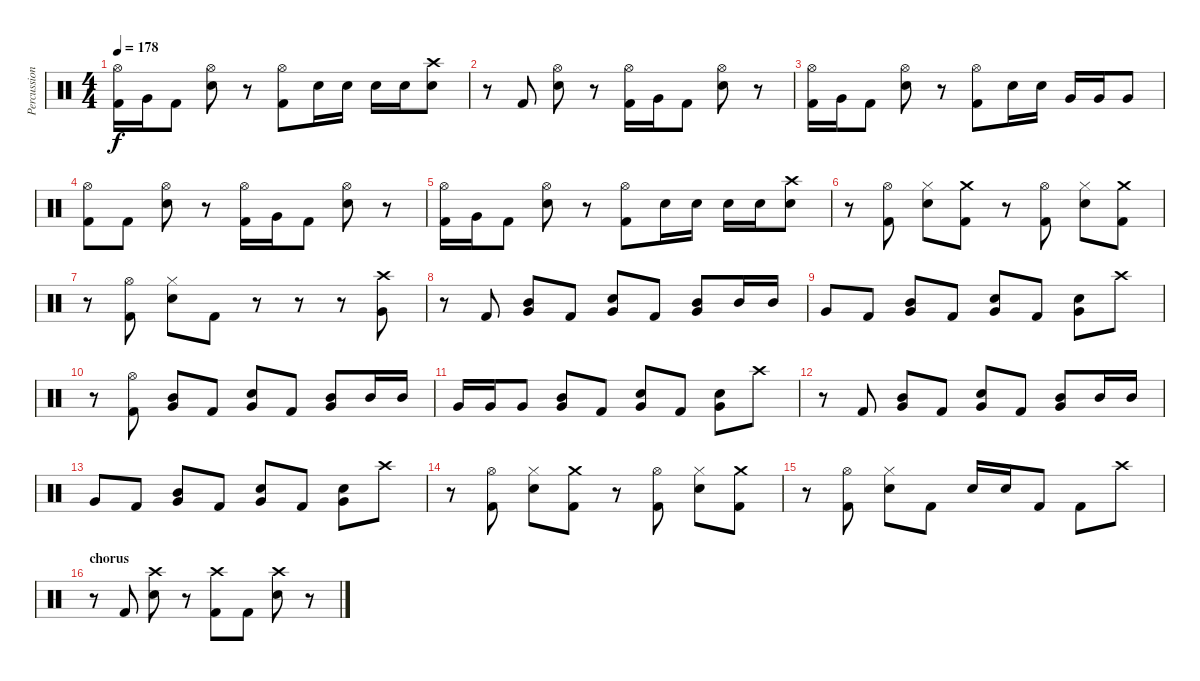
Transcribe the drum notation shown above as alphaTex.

\track ("Percussion" "Percussion") {instrument percussion}
\staff {score}
\articulation defaults
\ts (4 4)
\tempo 178
\clef neutral
\ks c
("Hi-Hat (open)" "Kick (hit) 2").16{dy f} "Very Low Tom (hit)".16 "Kick (hit) 2".8 ("Hi-Hat (open)" "Electric Snare (hit)").8 r.8 ("Hi-Hat (open)" "Kick (hit) 2").8 "Electric Snare (hit)".16 "Electric Snare (hit)".16 "Electric Snare (hit)".16 "Electric Snare (hit)".16 ("Crash high (hit)" "Electric Snare (hit)").8 |
r.8 "Kick (hit) 2".8 ("Hi-Hat (open)" "Electric Snare (hit)").8 r.8 ("Hi-Hat (open)" "Kick (hit) 2").16 "Very Low Tom (hit)".16 "Kick (hit) 2".8 ("Hi-Hat (open)" "Electric Snare (hit)").8 r.8 |
("Hi-Hat (open)" "Kick (hit) 2").16 "Very Low Tom (hit)".16 "Kick (hit) 2".8 ("Hi-Hat (open)" "Electric Snare (hit)").8 r.8 ("Hi-Hat (open)" "Kick (hit) 2").8 "Electric Snare (hit)".16 "Electric Snare (hit)".16 "Very Low Tom (hit)".16 "Very Low Tom (hit)".16 "Very Low Tom (hit)".8 |
("Hi-Hat (open)" "Kick (hit) 2").8 "Kick (hit) 2".8 ("Hi-Hat (open)" "Electric Snare (hit)").8 r.8 ("Hi-Hat (open)" "Kick (hit) 2").16 "Very Low Tom (hit)".16 "Kick (hit) 2".8 ("Hi-Hat (open)" "Electric Snare (hit)").8 r.8 |
("Hi-Hat (open)" "Kick (hit) 2").16 "Very Low Tom (hit)".16 "Kick (hit) 2".8 ("Hi-Hat (open)" "Electric Snare (hit)").8 r.8 ("Hi-Hat (open)" "Kick (hit) 2").8 "Electric Snare (hit)".16 "Electric Snare (hit)".16 "Electric Snare (hit)".16 "Electric Snare (hit)".16 ("Crash high (hit)" "Electric Snare (hit)").8 |
r.8 ("Hi-Hat (open)" "Kick (hit) 2").8 ("Hi-Hat (closed)" "Electric Snare (hit)").8 ("Crash medium (hit)" "Kick (hit) 2").8 r.8 ("Hi-Hat (open)" "Kick (hit) 2").8 ("Hi-Hat (closed)" "Electric Snare (hit)").8 ("Crash medium (hit)" "Kick (hit) 2").8 |
r.8 ("Hi-Hat (open)" "Kick (hit) 2").8 ("Hi-Hat (closed)" "Electric Snare (hit)").8 "Kick (hit) 2".8 r.8 r.8 r.8 ("Crash high (hit)" "Very Low Tom (hit)").8 |
r.8 "Kick (hit) 2".8 ("Mid Tom (hit)" "Very Low Tom (hit)").8 "Kick (hit) 2".8 ("Very Low Tom (hit)" "Electric Snare (hit)").8 "Kick (hit) 2".8 ("Mid Tom (hit)" "Very Low Tom (hit)").8 "Mid Tom (hit)".16 "Mid Tom (hit)".16 |
"Very Low Tom (hit)".8 "Kick (hit) 2".8 ("Mid Tom (hit)" "Very Low Tom (hit)").8 "Kick (hit) 2".8 ("Very Low Tom (hit)" "Electric Snare (hit)").8 "Kick (hit) 2".8 ("Very Low Tom (hit)" "Electric Snare (hit)").8 "Crash high (hit)".8 |
r.8 ("Hi-Hat (open)" "Kick (hit) 2").8 ("Mid Tom (hit)" "Very Low Tom (hit)").8 "Kick (hit) 2".8 ("Very Low Tom (hit)" "Electric Snare (hit)").8 "Kick (hit) 2".8 ("Mid Tom (hit)" "Very Low Tom (hit)").8 "Mid Tom (hit)".16 "Mid Tom (hit)".16 |
"Very Low Tom (hit)".16 "Very Low Tom (hit)".16 "Very Low Tom (hit)".8 ("Mid Tom (hit)" "Very Low Tom (hit)").8 "Kick (hit) 2".8 ("Very Low Tom (hit)" "Electric Snare (hit)").8 "Kick (hit) 2".8 ("Very Low Tom (hit)" "Electric Snare (hit)").8 "Crash high (hit)".8 |
r.8 "Kick (hit) 2".8 ("Mid Tom (hit)" "Very Low Tom (hit)").8 "Kick (hit) 2".8 ("Very Low Tom (hit)" "Electric Snare (hit)").8 "Kick (hit) 2".8 ("Mid Tom (hit)" "Very Low Tom (hit)").8 "Mid Tom (hit)".16 "Mid Tom (hit)".16 |
"Very Low Tom (hit)".8 "Kick (hit) 2".8 ("Mid Tom (hit)" "Very Low Tom (hit)").8 "Kick (hit) 2".8 ("Very Low Tom (hit)" "Electric Snare (hit)").8 "Kick (hit) 2".8 ("Very Low Tom (hit)" "Electric Snare (hit)").8 "Crash high (hit)".8 |
r.8 ("Hi-Hat (open)" "Kick (hit) 2").8 ("Hi-Hat (closed)" "Electric Snare (hit)").8 ("Crash medium (hit)" "Kick (hit) 2").8 r.8 ("Hi-Hat (open)" "Kick (hit) 2").8 ("Hi-Hat (closed)" "Electric Snare (hit)").8 ("Crash medium (hit)" "Kick (hit) 2").8 |
r.8 ("Hi-Hat (open)" "Kick (hit) 2").8 ("Hi-Hat (closed)" "Electric Snare (hit)").8 "Kick (hit) 2".8 "Electric Snare (hit)".16 "Electric Snare (hit)".16 "Kick (hit) 2".8 "Kick (hit) 2".8 "Crash high (hit)".8 |
\section ("" "chorus")
r.8 "Kick (hit) 2".8 ("Crash high (hit)" "Electric Snare (hit)").8 r.8 ("Crash high (hit)" "Kick (hit) 2").8 "Kick (hit) 2".8 ("Crash high (hit)" "Electric Snare (hit)").8 r.8
